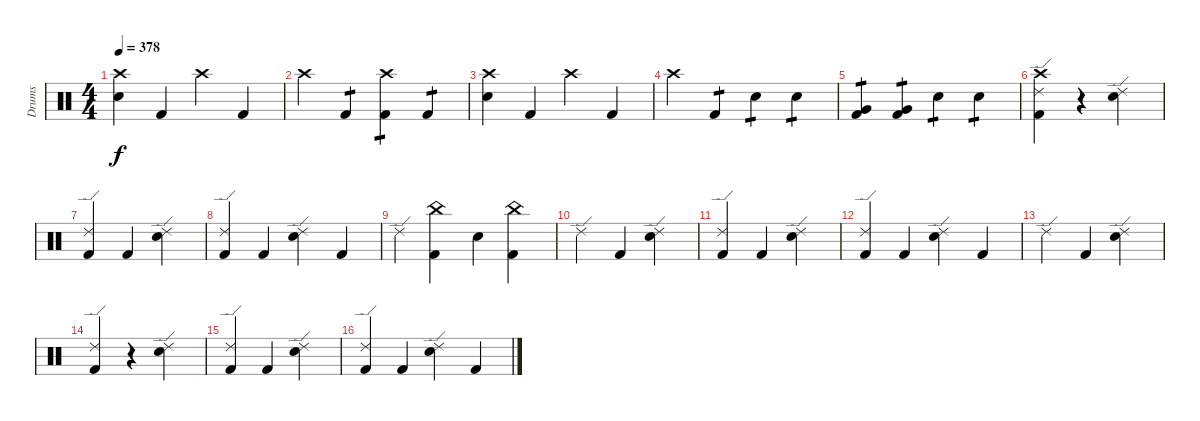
\track ("Drums" "Drums") {instrument percussion}
\staff {score}
\articulation defaults
\ts (4 4)
\tempo 378
\clef neutral
\ks c
("Crash high (hit)" "Electric Snare (hit)").4{dy f} "Kick (hit) 2".4 "Crash high (hit)".4 "Kick (hit) 2".4 |
"Crash high (hit)".4 "Kick (hit) 2".4{tp 1} ("Crash high (hit)" "Kick (hit) 2").4{tp 1} "Kick (hit) 2".4{tp 1} |
("Crash high (hit)" "Electric Snare (hit)").4 "Kick (hit) 2".4 "Crash high (hit)".4 "Kick (hit) 2".4 |
"Crash high (hit)".4 "Kick (hit) 2".4{tp 1} "Electric Snare (hit)".4{tp 1} "Electric Snare (hit)".4{tp 1} |
("Very Low Tom (hit)" "Kick (hit) 2").4{tp 1} ("Very Low Tom (hit)" "Kick (hit) 2").4{tp 1} "Electric Snare (hit)".4{tp 1} "Electric Snare (hit)".4{tp 1} |
("Crash high (hit)" "Ride (edge) 2" "Kick (hit) 2").4 r.4 ("Ride (edge) 2" "Electric Snare (hit)").4 |
("Ride (edge) 2" "Kick (hit) 2").4 "Kick (hit) 2".4 ("Ride (edge) 2" "Electric Snare (hit)").4 |
("Ride (edge) 2" "Kick (hit) 2").4 "Kick (hit) 2".4 ("Ride (edge) 2" "Electric Snare (hit)").4 "Kick (hit) 2".4 |
"Ride (edge) 2".4 ("China (hit)" "Kick (hit) 2").4 "Electric Snare (hit)".4 ("China (hit)" "Kick (hit) 2").4 |
"Ride (edge) 2".4 "Kick (hit) 2".4 ("Ride (edge) 2" "Electric Snare (hit)").4 |
("Ride (edge) 2" "Kick (hit) 2").4 "Kick (hit) 2".4 ("Ride (edge) 2" "Electric Snare (hit)").4 |
("Ride (edge) 2" "Kick (hit) 2").4 "Kick (hit) 2".4 ("Ride (edge) 2" "Electric Snare (hit)").4 "Kick (hit) 2".4 |
"Ride (edge) 2".4 "Kick (hit) 2".4 ("Ride (edge) 2" "Electric Snare (hit)").4 |
("Ride (edge) 2" "Kick (hit) 2").4 r.4 ("Ride (edge) 2" "Electric Snare (hit)").4 |
("Ride (edge) 2" "Kick (hit) 2").4 "Kick (hit) 2".4 ("Ride (edge) 2" "Electric Snare (hit)").4 |
("Ride (edge) 2" "Kick (hit) 2").4 "Kick (hit) 2".4 ("Ride (edge) 2" "Electric Snare (hit)").4 "Kick (hit) 2".4
